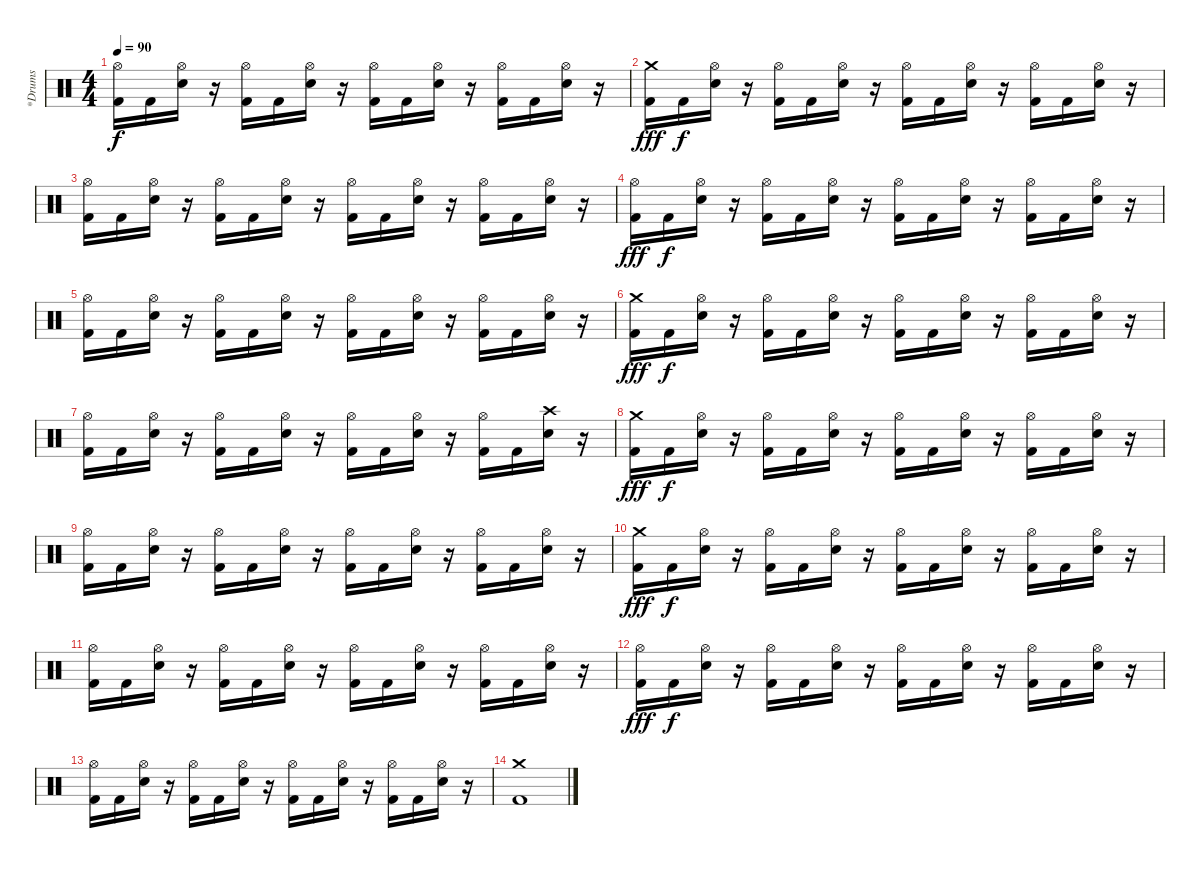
\track ("*Drums" "*Drums") {instrument percussion}
\staff {score}
\articulation defaults
\ts (4 4)
\tempo 90
\clef neutral
\ks c
("Hi-Hat (open)" "Kick (hit) 2").16{dy f} "Kick (hit) 2".16 ("Hi-Hat (open)" "Electric Snare (hit)").16 r.16 ("Hi-Hat (open)" "Kick (hit) 2").16 "Kick (hit) 2".16 ("Hi-Hat (open)" "Electric Snare (hit)").16 r.16 ("Hi-Hat (open)" "Kick (hit) 2").16 "Kick (hit) 2".16 ("Hi-Hat (open)" "Electric Snare (hit)").16 r.16 ("Hi-Hat (open)" "Kick (hit) 2").16 "Kick (hit) 2".16 ("Hi-Hat (open)" "Electric Snare (hit)").16 r.16 |
("Crash medium (hit)" "Kick (hit) 2").16{dy fff} "Kick (hit) 2".16{dy f} ("Hi-Hat (open)" "Electric Snare (hit)").16 r.16 ("Hi-Hat (open)" "Kick (hit) 2").16 "Kick (hit) 2".16 ("Hi-Hat (open)" "Electric Snare (hit)").16 r.16 ("Hi-Hat (open)" "Kick (hit) 2").16 "Kick (hit) 2".16 ("Hi-Hat (open)" "Electric Snare (hit)").16 r.16 ("Hi-Hat (open)" "Kick (hit) 2").16 "Kick (hit) 2".16 ("Hi-Hat (open)" "Electric Snare (hit)").16 r.16 |
("Hi-Hat (open)" "Kick (hit) 2").16 "Kick (hit) 2".16 ("Hi-Hat (open)" "Electric Snare (hit)").16 r.16 ("Hi-Hat (open)" "Kick (hit) 2").16 "Kick (hit) 2".16 ("Hi-Hat (open)" "Electric Snare (hit)").16 r.16 ("Hi-Hat (open)" "Kick (hit) 2").16 "Kick (hit) 2".16 ("Hi-Hat (open)" "Electric Snare (hit)").16 r.16 ("Hi-Hat (open)" "Kick (hit) 2").16 "Kick (hit) 2".16 ("Hi-Hat (open)" "Electric Snare (hit)").16 r.16 |
("Hi-Hat (open)" "Kick (hit) 2").16{dy fff} "Kick (hit) 2".16{dy f} ("Hi-Hat (open)" "Electric Snare (hit)").16 r.16 ("Hi-Hat (open)" "Kick (hit) 2").16 "Kick (hit) 2".16 ("Hi-Hat (open)" "Electric Snare (hit)").16 r.16 ("Hi-Hat (open)" "Kick (hit) 2").16 "Kick (hit) 2".16 ("Hi-Hat (open)" "Electric Snare (hit)").16 r.16 ("Hi-Hat (open)" "Kick (hit) 2").16 "Kick (hit) 2".16 ("Hi-Hat (open)" "Electric Snare (hit)").16 r.16 |
("Hi-Hat (open)" "Kick (hit) 2").16 "Kick (hit) 2".16 ("Hi-Hat (open)" "Electric Snare (hit)").16 r.16 ("Hi-Hat (open)" "Kick (hit) 2").16 "Kick (hit) 2".16 ("Hi-Hat (open)" "Electric Snare (hit)").16 r.16 ("Hi-Hat (open)" "Kick (hit) 2").16 "Kick (hit) 2".16 ("Hi-Hat (open)" "Electric Snare (hit)").16 r.16 ("Hi-Hat (open)" "Kick (hit) 2").16 "Kick (hit) 2".16 ("Hi-Hat (open)" "Electric Snare (hit)").16 r.16 |
("Crash medium (hit)" "Kick (hit) 2").16{dy fff} "Kick (hit) 2".16{dy f} ("Hi-Hat (open)" "Electric Snare (hit)").16 r.16 ("Hi-Hat (open)" "Kick (hit) 2").16 "Kick (hit) 2".16 ("Hi-Hat (open)" "Electric Snare (hit)").16 r.16 ("Hi-Hat (open)" "Kick (hit) 2").16 "Kick (hit) 2".16 ("Hi-Hat (open)" "Electric Snare (hit)").16 r.16 ("Hi-Hat (open)" "Kick (hit) 2").16 "Kick (hit) 2".16 ("Hi-Hat (open)" "Electric Snare (hit)").16 r.16 |
("Hi-Hat (open)" "Kick (hit) 2").16 "Kick (hit) 2".16 ("Hi-Hat (open)" "Electric Snare (hit)").16 r.16 ("Hi-Hat (open)" "Kick (hit) 2").16 "Kick (hit) 2".16 ("Hi-Hat (open)" "Electric Snare (hit)").16 r.16 ("Hi-Hat (open)" "Kick (hit) 2").16 "Kick (hit) 2".16 ("Hi-Hat (open)" "Electric Snare (hit)").16 r.16 ("Hi-Hat (open)" "Kick (hit) 2").16 "Kick (hit) 2".16 ("Crash high (hit)" "Electric Snare (hit)").16 r.16 |
("Crash medium (hit)" "Kick (hit) 2").16{dy fff} "Kick (hit) 2".16{dy f} ("Hi-Hat (open)" "Electric Snare (hit)").16 r.16 ("Hi-Hat (open)" "Kick (hit) 2").16 "Kick (hit) 2".16 ("Hi-Hat (open)" "Electric Snare (hit)").16 r.16 ("Hi-Hat (open)" "Kick (hit) 2").16 "Kick (hit) 2".16 ("Hi-Hat (open)" "Electric Snare (hit)").16 r.16 ("Hi-Hat (open)" "Kick (hit) 2").16 "Kick (hit) 2".16 ("Hi-Hat (open)" "Electric Snare (hit)").16 r.16 |
("Hi-Hat (open)" "Kick (hit) 2").16 "Kick (hit) 2".16 ("Hi-Hat (open)" "Electric Snare (hit)").16 r.16 ("Hi-Hat (open)" "Kick (hit) 2").16 "Kick (hit) 2".16 ("Hi-Hat (open)" "Electric Snare (hit)").16 r.16 ("Hi-Hat (open)" "Kick (hit) 2").16 "Kick (hit) 2".16 ("Hi-Hat (open)" "Electric Snare (hit)").16 r.16 ("Hi-Hat (open)" "Kick (hit) 2").16 "Kick (hit) 2".16 ("Hi-Hat (open)" "Electric Snare (hit)").16 r.16 |
("Crash medium (hit)" "Kick (hit) 2").16{dy fff} "Kick (hit) 2".16{dy f} ("Hi-Hat (open)" "Electric Snare (hit)").16 r.16 ("Hi-Hat (open)" "Kick (hit) 2").16 "Kick (hit) 2".16 ("Hi-Hat (open)" "Electric Snare (hit)").16 r.16 ("Hi-Hat (open)" "Kick (hit) 2").16 "Kick (hit) 2".16 ("Hi-Hat (open)" "Electric Snare (hit)").16 r.16 ("Hi-Hat (open)" "Kick (hit) 2").16 "Kick (hit) 2".16 ("Hi-Hat (open)" "Electric Snare (hit)").16 r.16 |
("Hi-Hat (open)" "Kick (hit) 2").16 "Kick (hit) 2".16 ("Hi-Hat (open)" "Electric Snare (hit)").16 r.16 ("Hi-Hat (open)" "Kick (hit) 2").16 "Kick (hit) 2".16 ("Hi-Hat (open)" "Electric Snare (hit)").16 r.16 ("Hi-Hat (open)" "Kick (hit) 2").16 "Kick (hit) 2".16 ("Hi-Hat (open)" "Electric Snare (hit)").16 r.16 ("Hi-Hat (open)" "Kick (hit) 2").16 "Kick (hit) 2".16 ("Hi-Hat (open)" "Electric Snare (hit)").16 r.16 |
("Hi-Hat (open)" "Kick (hit) 2").16{dy fff} "Kick (hit) 2".16{dy f} ("Hi-Hat (open)" "Electric Snare (hit)").16 r.16 ("Hi-Hat (open)" "Kick (hit) 2").16 "Kick (hit) 2".16 ("Hi-Hat (open)" "Electric Snare (hit)").16 r.16 ("Hi-Hat (open)" "Kick (hit) 2").16 "Kick (hit) 2".16 ("Hi-Hat (open)" "Electric Snare (hit)").16 r.16 ("Hi-Hat (open)" "Kick (hit) 2").16 "Kick (hit) 2".16 ("Hi-Hat (open)" "Electric Snare (hit)").16 r.16 |
("Hi-Hat (open)" "Kick (hit) 2").16 "Kick (hit) 2".16 ("Hi-Hat (open)" "Electric Snare (hit)").16 r.16 ("Hi-Hat (open)" "Kick (hit) 2").16 "Kick (hit) 2".16 ("Hi-Hat (open)" "Electric Snare (hit)").16 r.16 ("Hi-Hat (open)" "Kick (hit) 2").16 "Kick (hit) 2".16 ("Hi-Hat (open)" "Electric Snare (hit)").16 r.16 ("Hi-Hat (open)" "Kick (hit) 2").16 "Kick (hit) 2".16 ("Hi-Hat (open)" "Electric Snare (hit)").16 r.16 |
("Crash medium (hit)" "Kick (hit) 2").1
